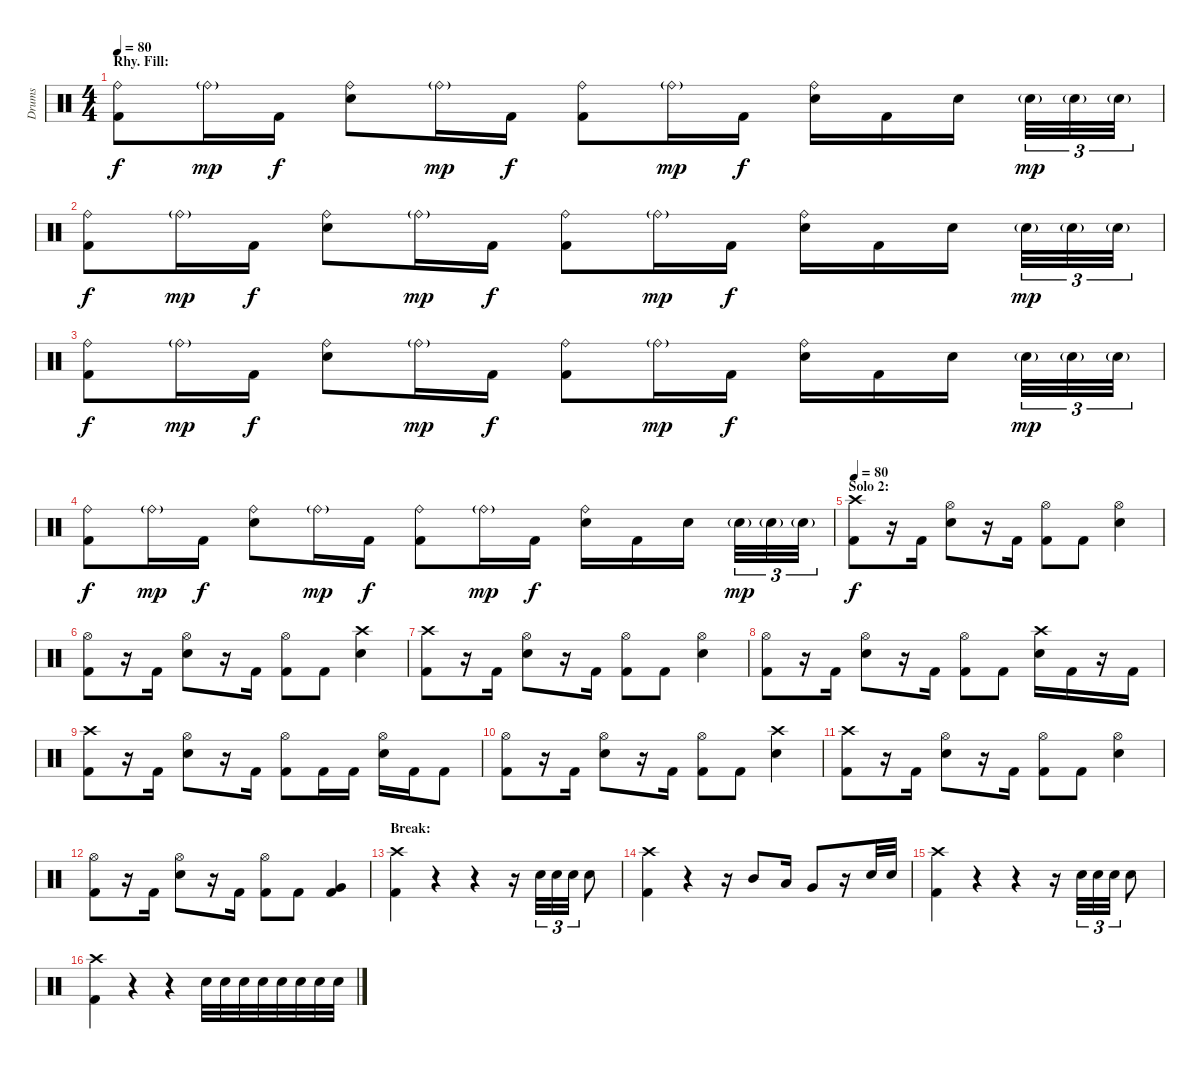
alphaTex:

\track ("Drums" "Drums") {instrument percussion}
\staff {score}
\articulation defaults
\ts (4 4)
\section ("" "Rhy. Fill:")
\tempo 80
\clef neutral
\ks c
("Ride (bell)" "Kick (hit) 2").8{dy f} "Ride (bell)"{g}.16{dy mp} "Kick (hit) 2".16{dy f} ("Ride (bell)" "Electric Snare (hit)").8 "Ride (bell)"{g}.16{dy mp} "Kick (hit) 2".16{dy f} ("Ride (bell)" "Kick (hit) 2").8 "Ride (bell)"{g}.16{dy mp} "Kick (hit) 2".16{dy f} ("Ride (bell)" "Electric Snare (hit)").16 "Kick (hit) 2".16 "Electric Snare (hit)".16 "Electric Snare (hit)"{g}.32{tu (3 2) dy mp} "Electric Snare (hit)"{g}.32{tu (3 2)} "Electric Snare (hit)"{g}.32{tu (3 2)} |
("Ride (bell)" "Kick (hit) 2").8{dy f} "Ride (bell)"{g}.16{dy mp} "Kick (hit) 2".16{dy f} ("Ride (bell)" "Electric Snare (hit)").8 "Ride (bell)"{g}.16{dy mp} "Kick (hit) 2".16{dy f} ("Ride (bell)" "Kick (hit) 2").8 "Ride (bell)"{g}.16{dy mp} "Kick (hit) 2".16{dy f} ("Ride (bell)" "Electric Snare (hit)").16 "Kick (hit) 2".16 "Electric Snare (hit)".16 "Electric Snare (hit)"{g}.32{tu (3 2) dy mp} "Electric Snare (hit)"{g}.32{tu (3 2)} "Electric Snare (hit)"{g}.32{tu (3 2)} |
("Ride (bell)" "Kick (hit) 2").8{dy f} "Ride (bell)"{g}.16{dy mp} "Kick (hit) 2".16{dy f} ("Ride (bell)" "Electric Snare (hit)").8 "Ride (bell)"{g}.16{dy mp} "Kick (hit) 2".16{dy f} ("Ride (bell)" "Kick (hit) 2").8 "Ride (bell)"{g}.16{dy mp} "Kick (hit) 2".16{dy f} ("Ride (bell)" "Electric Snare (hit)").16 "Kick (hit) 2".16 "Electric Snare (hit)".16 "Electric Snare (hit)"{g}.32{tu (3 2) dy mp} "Electric Snare (hit)"{g}.32{tu (3 2)} "Electric Snare (hit)"{g}.32{tu (3 2)} |
("Ride (bell)" "Kick (hit) 2").8{dy f} "Ride (bell)"{g}.16{dy mp} "Kick (hit) 2".16{dy f} ("Ride (bell)" "Electric Snare (hit)").8 "Ride (bell)"{g}.16{dy mp} "Kick (hit) 2".16{dy f} ("Ride (bell)" "Kick (hit) 2").8 "Ride (bell)"{g}.16{dy mp} "Kick (hit) 2".16{dy f} ("Ride (bell)" "Electric Snare (hit)").16 "Kick (hit) 2".16 "Electric Snare (hit)".16 "Electric Snare (hit)"{g}.32{tu (3 2) dy mp} "Electric Snare (hit)"{g}.32{tu (3 2)} "Electric Snare (hit)"{g}.32{tu (3 2)} |
\section ("" "Solo 2:")
\tempo 80
("Crash high (hit)" "Kick (hit) 2").8{dy f} r.16 "Kick (hit) 2".16 ("Hi-Hat (open)" "Electric Snare (hit)").8 r.16 "Kick (hit) 2".16 ("Hi-Hat (open)" "Kick (hit) 2").8 "Kick (hit) 2".8 ("Hi-Hat (open)" "Electric Snare (hit)").4 |
("Hi-Hat (open)" "Kick (hit) 2").8 r.16 "Kick (hit) 2".16 ("Hi-Hat (open)" "Electric Snare (hit)").8 r.16 "Kick (hit) 2".16 ("Hi-Hat (open)" "Kick (hit) 2").8 "Kick (hit) 2".8 ("Crash high (hit)" "Electric Snare (hit)").4 |
("Crash high (hit)" "Kick (hit) 2").8 r.16 "Kick (hit) 2".16 ("Hi-Hat (open)" "Electric Snare (hit)").8 r.16 "Kick (hit) 2".16 ("Hi-Hat (open)" "Kick (hit) 2").8 "Kick (hit) 2".8 ("Hi-Hat (open)" "Electric Snare (hit)").4 |
("Hi-Hat (open)" "Kick (hit) 2").8 r.16 "Kick (hit) 2".16 ("Hi-Hat (open)" "Electric Snare (hit)").8 r.16 "Kick (hit) 2".16 ("Hi-Hat (open)" "Kick (hit) 2").8 "Kick (hit) 2".8 ("Crash high (hit)" "Electric Snare (hit)").16 "Kick (hit) 2".16 r.16 "Kick (hit) 2".16 |
("Crash high (hit)" "Kick (hit) 2").8 r.16 "Kick (hit) 2".16 ("Hi-Hat (open)" "Electric Snare (hit)").8 r.16 "Kick (hit) 2".16 ("Hi-Hat (open)" "Kick (hit) 2").8 "Kick (hit) 2".16 "Kick (hit) 2".16 ("Hi-Hat (open)" "Electric Snare (hit)").16 "Kick (hit) 2".16 "Kick (hit) 2".8 |
("Hi-Hat (open)" "Kick (hit) 2").8 r.16 "Kick (hit) 2".16 ("Hi-Hat (open)" "Electric Snare (hit)").8 r.16 "Kick (hit) 2".16 ("Hi-Hat (open)" "Kick (hit) 2").8 "Kick (hit) 2".8 ("Crash high (hit)" "Electric Snare (hit)").4 |
("Crash high (hit)" "Kick (hit) 2").8 r.16 "Kick (hit) 2".16 ("Hi-Hat (open)" "Electric Snare (hit)").8 r.16 "Kick (hit) 2".16 ("Hi-Hat (open)" "Kick (hit) 2").8 "Kick (hit) 2".8 ("Hi-Hat (open)" "Electric Snare (hit)").4 |
("Hi-Hat (open)" "Kick (hit) 2").8 r.16 "Kick (hit) 2".16 ("Hi-Hat (open)" "Electric Snare (hit)").8 r.16 "Kick (hit) 2".16 ("Hi-Hat (open)" "Kick (hit) 2").8 "Kick (hit) 2".8 ("Very Low Tom (hit)" "Kick (hit) 2").4 |
\section ("" "Break:")
("Crash high (hit)" "Kick (hit) 2").4 r.4 r.4 r.16 "Electric Snare (hit)".32{tu (3 2)} "Electric Snare (hit)".32{tu (3 2)} "Electric Snare (hit)".32{tu (3 2)} "Electric Snare (hit)".8 |
("Crash high (hit)" "Kick (hit) 2").4 r.4 r.16 "Mid Tom (hit)".8 "Low Tom (hit)".16 "Very Low Tom (hit)".8 r.16 "Electric Snare (hit)".32 "Electric Snare (hit)".32 |
("Crash high (hit)" "Kick (hit) 2").4 r.4 r.4 r.16 "Electric Snare (hit)".32{tu (3 2)} "Electric Snare (hit)".32{tu (3 2)} "Electric Snare (hit)".32{tu (3 2)} "Electric Snare (hit)".8 |
("Crash high (hit)" "Kick (hit) 2").4 r.4 r.4 "Electric Snare (hit)".32 "Electric Snare (hit)".32 "Electric Snare (hit)".32 "Electric Snare (hit)".32 "Electric Snare (hit)".32 "Electric Snare (hit)".32 "Electric Snare (hit)".32 "Electric Snare (hit)".32
